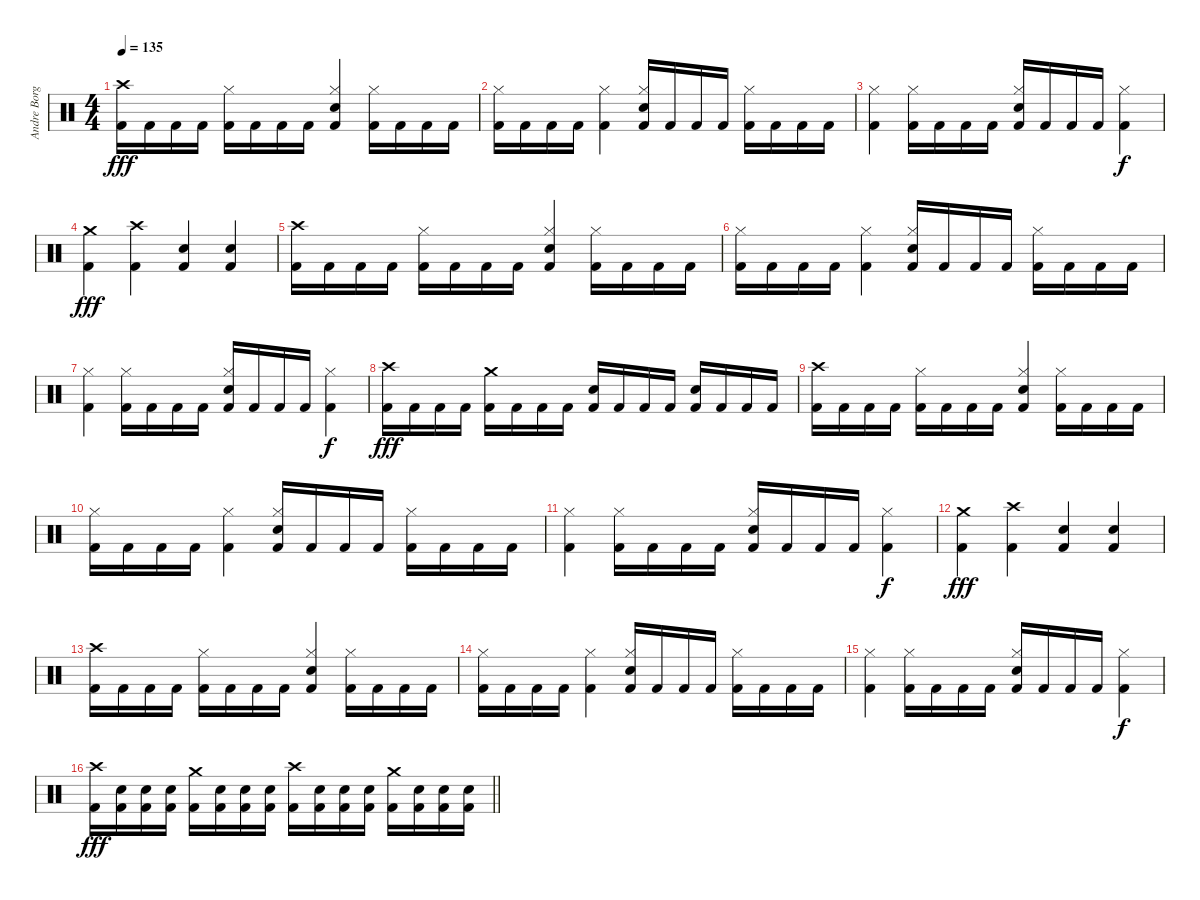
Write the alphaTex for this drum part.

\track ("Andre Borgman" "Andre Borg") {instrument percussion}
\staff {score}
\articulation defaults
\ts (4 4)
\tempo 135
\clef neutral
\ks c
("Crash high (hit)" "Kick (hit) 2").16{dy fff} "Kick (hit) 2".16 "Kick (hit) 2".16 "Kick (hit) 2".16 ("Hi-Hat (closed)" "Kick (hit) 2").16 "Kick (hit) 2".16 "Kick (hit) 2".16 "Kick (hit) 2".16 ("Hi-Hat (closed)" "Snare (hit) 2" "Kick (hit) 2").4 ("Hi-Hat (closed)" "Kick (hit) 2").16 "Kick (hit) 2".16 "Kick (hit) 2".16 "Kick (hit) 2".16 |
("Hi-Hat (closed)" "Kick (hit) 2").16 "Kick (hit) 2".16 "Kick (hit) 2".16 "Kick (hit) 2".16 ("Hi-Hat (closed)" "Kick (hit) 2").4 ("Hi-Hat (closed)" "Snare (hit) 2" "Kick (hit) 2").16 "Kick (hit) 2".16 "Kick (hit) 2".16 "Kick (hit) 2".16 ("Hi-Hat (closed)" "Kick (hit) 2").16 "Kick (hit) 2".16 "Kick (hit) 2".16 "Kick (hit) 2".16 |
("Hi-Hat (closed)" "Kick (hit) 2").4 ("Hi-Hat (closed)" "Kick (hit) 2").16 "Kick (hit) 2".16 "Kick (hit) 2".16 "Kick (hit) 2".16 ("Hi-Hat (closed)" "Snare (hit) 2" "Kick (hit) 2").16 "Kick (hit) 2".16 "Kick (hit) 2".16 "Kick (hit) 2".16 ("Hi-Hat (closed)" "Kick (hit) 2").4{dy f} |
("Crash medium (hit)" "Kick (hit) 2").4{dy fff} ("Crash high (hit)" "Kick (hit) 2").4 ("Snare (hit) 2" "Kick (hit) 2").4 ("Snare (hit) 2" "Kick (hit) 2").4 |
("Crash high (hit)" "Kick (hit) 2").16 "Kick (hit) 2".16 "Kick (hit) 2".16 "Kick (hit) 2".16 ("Hi-Hat (closed)" "Kick (hit) 2").16 "Kick (hit) 2".16 "Kick (hit) 2".16 "Kick (hit) 2".16 ("Hi-Hat (closed)" "Snare (hit) 2" "Kick (hit) 2").4 ("Hi-Hat (closed)" "Kick (hit) 2").16 "Kick (hit) 2".16 "Kick (hit) 2".16 "Kick (hit) 2".16 |
("Hi-Hat (closed)" "Kick (hit) 2").16 "Kick (hit) 2".16 "Kick (hit) 2".16 "Kick (hit) 2".16 ("Hi-Hat (closed)" "Kick (hit) 2").4 ("Hi-Hat (closed)" "Snare (hit) 2" "Kick (hit) 2").16 "Kick (hit) 2".16 "Kick (hit) 2".16 "Kick (hit) 2".16 ("Hi-Hat (closed)" "Kick (hit) 2").16 "Kick (hit) 2".16 "Kick (hit) 2".16 "Kick (hit) 2".16 |
("Hi-Hat (closed)" "Kick (hit) 2").4 ("Hi-Hat (closed)" "Kick (hit) 2").16 "Kick (hit) 2".16 "Kick (hit) 2".16 "Kick (hit) 2".16 ("Hi-Hat (closed)" "Snare (hit) 2" "Kick (hit) 2").16 "Kick (hit) 2".16 "Kick (hit) 2".16 "Kick (hit) 2".16 ("Hi-Hat (closed)" "Kick (hit) 2").4{dy f} |
("Crash high (hit)" "Kick (hit) 2").16{dy fff} "Kick (hit) 2".16 "Kick (hit) 2".16 "Kick (hit) 2".16 ("Crash medium (hit)" "Kick (hit) 2").16 "Kick (hit) 2".16 "Kick (hit) 2".16 "Kick (hit) 2".16 ("Snare (hit) 2" "Kick (hit) 2").16 "Kick (hit) 2".16 "Kick (hit) 2".16 "Kick (hit) 2".16 ("Snare (hit) 2" "Kick (hit) 2").16 "Kick (hit) 2".16 "Kick (hit) 2".16 "Kick (hit) 2".16 |
("Crash high (hit)" "Kick (hit) 2").16 "Kick (hit) 2".16 "Kick (hit) 2".16 "Kick (hit) 2".16 ("Hi-Hat (closed)" "Kick (hit) 2").16 "Kick (hit) 2".16 "Kick (hit) 2".16 "Kick (hit) 2".16 ("Hi-Hat (closed)" "Snare (hit) 2" "Kick (hit) 2").4 ("Hi-Hat (closed)" "Kick (hit) 2").16 "Kick (hit) 2".16 "Kick (hit) 2".16 "Kick (hit) 2".16 |
("Hi-Hat (closed)" "Kick (hit) 2").16 "Kick (hit) 2".16 "Kick (hit) 2".16 "Kick (hit) 2".16 ("Hi-Hat (closed)" "Kick (hit) 2").4 ("Hi-Hat (closed)" "Snare (hit) 2" "Kick (hit) 2").16 "Kick (hit) 2".16 "Kick (hit) 2".16 "Kick (hit) 2".16 ("Hi-Hat (closed)" "Kick (hit) 2").16 "Kick (hit) 2".16 "Kick (hit) 2".16 "Kick (hit) 2".16 |
("Hi-Hat (closed)" "Kick (hit) 2").4 ("Hi-Hat (closed)" "Kick (hit) 2").16 "Kick (hit) 2".16 "Kick (hit) 2".16 "Kick (hit) 2".16 ("Hi-Hat (closed)" "Snare (hit) 2" "Kick (hit) 2").16 "Kick (hit) 2".16 "Kick (hit) 2".16 "Kick (hit) 2".16 ("Hi-Hat (closed)" "Kick (hit) 2").4{dy f} |
("Crash medium (hit)" "Kick (hit) 2").4{dy fff} ("Crash high (hit)" "Kick (hit) 2").4 ("Snare (hit) 2" "Kick (hit) 2").4 ("Snare (hit) 2" "Kick (hit) 2").4 |
("Crash high (hit)" "Kick (hit) 2").16 "Kick (hit) 2".16 "Kick (hit) 2".16 "Kick (hit) 2".16 ("Hi-Hat (closed)" "Kick (hit) 2").16 "Kick (hit) 2".16 "Kick (hit) 2".16 "Kick (hit) 2".16 ("Hi-Hat (closed)" "Snare (hit) 2" "Kick (hit) 2").4 ("Hi-Hat (closed)" "Kick (hit) 2").16 "Kick (hit) 2".16 "Kick (hit) 2".16 "Kick (hit) 2".16 |
("Hi-Hat (closed)" "Kick (hit) 2").16 "Kick (hit) 2".16 "Kick (hit) 2".16 "Kick (hit) 2".16 ("Hi-Hat (closed)" "Kick (hit) 2").4 ("Hi-Hat (closed)" "Snare (hit) 2" "Kick (hit) 2").16 "Kick (hit) 2".16 "Kick (hit) 2".16 "Kick (hit) 2".16 ("Hi-Hat (closed)" "Kick (hit) 2").16 "Kick (hit) 2".16 "Kick (hit) 2".16 "Kick (hit) 2".16 |
("Hi-Hat (closed)" "Kick (hit) 2").4 ("Hi-Hat (closed)" "Kick (hit) 2").16 "Kick (hit) 2".16 "Kick (hit) 2".16 "Kick (hit) 2".16 ("Hi-Hat (closed)" "Snare (hit) 2" "Kick (hit) 2").16 "Kick (hit) 2".16 "Kick (hit) 2".16 "Kick (hit) 2".16 ("Hi-Hat (closed)" "Kick (hit) 2").4{dy f} |
\barLineRight lightlight
("Crash high (hit)" "Kick (hit) 2").16{dy fff} ("Snare (hit) 2" "Kick (hit) 2").16 ("Snare (hit) 2" "Kick (hit) 2").16 ("Snare (hit) 2" "Kick (hit) 2").16 ("Crash medium (hit)" "Kick (hit) 2").16 ("Snare (hit) 2" "Kick (hit) 2").16 ("Snare (hit) 2" "Kick (hit) 2").16 ("Snare (hit) 2" "Kick (hit) 2").16 ("Crash high (hit)" "Kick (hit) 2").16 ("Snare (hit) 2" "Kick (hit) 2").16 ("Snare (hit) 2" "Kick (hit) 2").16 ("Snare (hit) 2" "Kick (hit) 2").16 ("Crash medium (hit)" "Kick (hit) 2").16 ("Snare (hit) 2" "Kick (hit) 2").16 ("Snare (hit) 2" "Kick (hit) 2").16 ("Snare (hit) 2" "Kick (hit) 2").16
